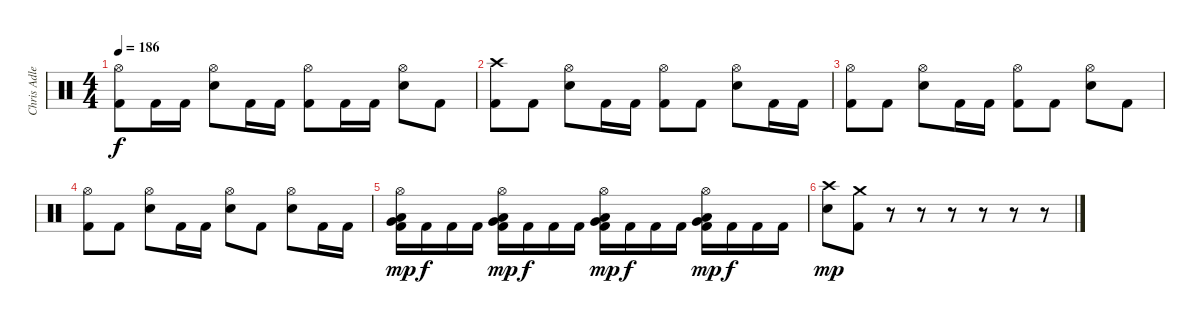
\track ("Chris Adler" "Chris Adle") {instrument percussion}
\staff {score}
\articulation defaults
\ts (4 4)
\tempo 186
\clef neutral
\ks c
("Hi-Hat (open)" "Kick (hit) 2").8{dy f} "Kick (hit) 2".16 "Kick (hit) 2".16 ("Hi-Hat (open)" "Electric Snare (hit)").8 "Kick (hit) 2".16 "Kick (hit) 2".16 ("Hi-Hat (open)" "Kick (hit) 2").8 "Kick (hit) 2".16 "Kick (hit) 2".16 ("Hi-Hat (open)" "Electric Snare (hit)").8 "Kick (hit) 2".8 |
("Crash high (hit)" "Kick (hit) 2").8 "Kick (hit) 2".8 ("Hi-Hat (open)" "Electric Snare (hit)").8 "Kick (hit) 2".16 "Kick (hit) 2".16 ("Hi-Hat (open)" "Kick (hit) 2").8 "Kick (hit) 2".8 ("Hi-Hat (open)" "Electric Snare (hit)").8 "Kick (hit) 2".16 "Kick (hit) 2".16 |
("Hi-Hat (open)" "Kick (hit) 2").8 "Kick (hit) 2".8 ("Hi-Hat (open)" "Electric Snare (hit)").8 "Kick (hit) 2".16 "Kick (hit) 2".16 ("Hi-Hat (open)" "Kick (hit) 2").8 "Kick (hit) 2".8 ("Hi-Hat (open)" "Electric Snare (hit)").8 "Kick (hit) 2".8 |
("Hi-Hat (open)" "Kick (hit) 2").8 "Kick (hit) 2".8 ("Hi-Hat (open)" "Electric Snare (hit)").8 "Kick (hit) 2".16 "Kick (hit) 2".16 ("Hi-Hat (open)" "Electric Snare (hit)").8 "Kick (hit) 2".8 ("Hi-Hat (open)" "Electric Snare (hit)").8 "Kick (hit) 2".16 "Kick (hit) 2".16 |
("Hi-Hat (open)" "Very Low Tom (hit)" "Low Floor Tom (hit)" "Kick (hit) 2").16{dy mp} "Kick (hit) 2".16{dy f} "Kick (hit) 2".16 "Kick (hit) 2".16 ("Hi-Hat (open)" "Very Low Tom (hit)" "Low Floor Tom (hit)" "Kick (hit) 2").16{dy mp} "Kick (hit) 2".16{dy f} "Kick (hit) 2".16 "Kick (hit) 2".16 ("Hi-Hat (open)" "Very Low Tom (hit)" "Low Floor Tom (hit)" "Kick (hit) 2").16{dy mp} "Kick (hit) 2".16{dy f} "Kick (hit) 2".16 "Kick (hit) 2".16 ("Hi-Hat (open)" "Very Low Tom (hit)" "Low Floor Tom (hit)" "Kick (hit) 2").16{dy mp} "Kick (hit) 2".16{dy f} "Kick (hit) 2".16 "Kick (hit) 2".16 |
("Crash high (hit)" "Electric Snare (hit)").8{dy mp} ("Crash medium (hit)" "Kick (hit) 2").8 r.8 r.8 r.8 r.8 r.8 r.8
